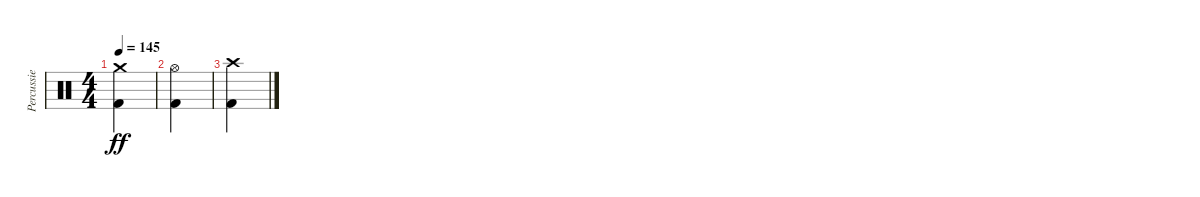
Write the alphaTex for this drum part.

\track ("Percussie" "Percussie") {instrument percussion}
\staff {score}
\articulation defaults
\ts (4 4)
\tempo 145
\clef neutral
\ks c
("Kick (hit) 2" "Crash medium (hit)").4{dy ff} |
("Kick (hit) 2" "Hi-Hat (open)").4 |
("Kick (hit) 2" "Crash high (hit)").4
